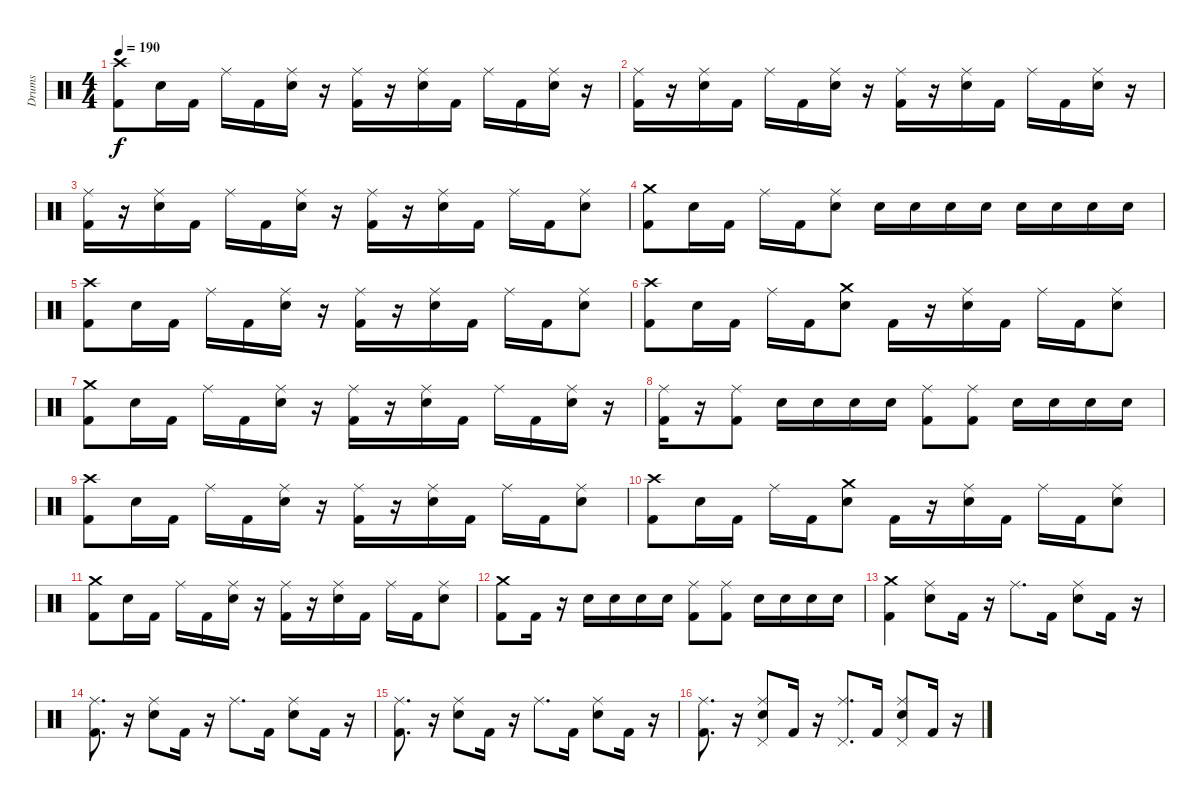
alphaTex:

\track ("Drums" "Drums") {instrument percussion}
\staff {score}
\articulation defaults
\ts (4 4)
\tempo 190
\clef neutral
\ks c
("Kick (hit) 2" "Crash high (hit)").8{dy f} "Electric Snare (hit)".16 "Kick (hit) 2".16 "Ride (middle)".16 "Kick (hit) 2".16 ("Electric Snare (hit)" "Ride (middle)").16 r.16 ("Kick (hit) 2" "Ride (middle)").16 r.16 ("Electric Snare (hit)" "Ride (middle)").16 "Kick (hit) 2".16 "Ride (middle)".16 "Kick (hit) 2".16 ("Electric Snare (hit)" "Ride (middle)").16 r.16 |
("Kick (hit) 2" "Ride (middle)").16 r.16 ("Electric Snare (hit)" "Ride (middle)").16 "Kick (hit) 2".16 "Ride (middle)".16 "Kick (hit) 2".16 ("Electric Snare (hit)" "Ride (middle)").16 r.16 ("Kick (hit) 2" "Ride (middle)").16 r.16 ("Electric Snare (hit)" "Ride (middle)").16 "Kick (hit) 2".16 "Ride (middle)".16 "Kick (hit) 2".16 ("Electric Snare (hit)" "Ride (middle)").16 r.16 |
("Kick (hit) 2" "Ride (middle)").16 r.16 ("Electric Snare (hit)" "Ride (middle)").16 "Kick (hit) 2".16 "Ride (middle)".16 "Kick (hit) 2".16 ("Electric Snare (hit)" "Ride (middle)").16 r.16 ("Kick (hit) 2" "Ride (middle)").16 r.16 ("Electric Snare (hit)" "Ride (middle)").16 "Kick (hit) 2".16 "Ride (middle)".16 "Kick (hit) 2".16 ("Electric Snare (hit)" "Ride (middle)").8 |
("Kick (hit) 2" "Crash medium (hit)").8 "Electric Snare (hit)".16 "Kick (hit) 2".16 "Ride (middle)".16 "Kick (hit) 2".16 ("Electric Snare (hit)" "Ride (middle)").8 "Electric Snare (hit)".16 "Electric Snare (hit)".16 "Electric Snare (hit)".16 "Electric Snare (hit)".16 "Electric Snare (hit)".16 "Electric Snare (hit)".16 "Electric Snare (hit)".16 "Electric Snare (hit)".16 |
("Kick (hit) 2" "Crash high (hit)").8 "Electric Snare (hit)".16 "Kick (hit) 2".16 "Ride (middle)".16 "Kick (hit) 2".16 ("Electric Snare (hit)" "Ride (middle)").16 r.16 ("Kick (hit) 2" "Ride (middle)").16 r.16 ("Electric Snare (hit)" "Ride (middle)").16 "Kick (hit) 2".16 "Ride (middle)".16 "Kick (hit) 2".16 ("Electric Snare (hit)" "Ride (middle)").8 |
("Kick (hit) 2" "Crash high (hit)").8 "Electric Snare (hit)".16 "Kick (hit) 2".16 "Ride (middle)".16 "Kick (hit) 2".16 ("Electric Snare (hit)" "Crash medium (hit)").8 "Kick (hit) 2".16 r.16 ("Electric Snare (hit)" "Ride (middle)").16 "Kick (hit) 2".16 "Ride (middle)".16 "Kick (hit) 2".16 ("Electric Snare (hit)" "Ride (middle)").8 |
("Kick (hit) 2" "Crash medium (hit)").8 "Electric Snare (hit)".16 "Kick (hit) 2".16 "Ride (middle)".16 "Kick (hit) 2".16 ("Electric Snare (hit)" "Ride (middle)").16 r.16 ("Kick (hit) 2" "Ride (middle)").16 r.16 ("Electric Snare (hit)" "Ride (middle)").16 "Kick (hit) 2".16 "Ride (middle)".16 "Kick (hit) 2".16 ("Electric Snare (hit)" "Ride (middle)").16 r.16 |
("Kick (hit) 2" "Ride (middle)").16 r.16 ("Kick (hit) 2" "Ride (middle)").8 "Electric Snare (hit)".16 "Electric Snare (hit)".16 "Electric Snare (hit)".16 "Electric Snare (hit)".16 ("Kick (hit) 2" "Ride (middle)").8 ("Kick (hit) 2" "Ride (middle)").8 "Electric Snare (hit)".16 "Electric Snare (hit)".16 "Electric Snare (hit)".16 "Electric Snare (hit)".16 |
("Kick (hit) 2" "Crash high (hit)").8 "Electric Snare (hit)".16 "Kick (hit) 2".16 "Ride (middle)".16 "Kick (hit) 2".16 ("Electric Snare (hit)" "Ride (middle)").16 r.16 ("Kick (hit) 2" "Ride (middle)").16 r.16 ("Electric Snare (hit)" "Ride (middle)").16 "Kick (hit) 2".16 "Ride (middle)".16 "Kick (hit) 2".16 ("Electric Snare (hit)" "Ride (middle)").8 |
("Kick (hit) 2" "Crash high (hit)").8 "Electric Snare (hit)".16 "Kick (hit) 2".16 "Ride (middle)".16 "Kick (hit) 2".16 ("Electric Snare (hit)" "Crash medium (hit)").8 "Kick (hit) 2".16 r.16 ("Electric Snare (hit)" "Ride (middle)").16 "Kick (hit) 2".16 "Ride (middle)".16 "Kick (hit) 2".16 ("Electric Snare (hit)" "Ride (middle)").8 |
("Kick (hit) 2" "Crash medium (hit)").8 "Electric Snare (hit)".16 "Kick (hit) 2".16 "Ride (middle)".16 "Kick (hit) 2".16 ("Electric Snare (hit)" "Ride (middle)").16 r.16 ("Kick (hit) 2" "Ride (middle)").16 r.16 ("Electric Snare (hit)" "Ride (middle)").16 "Kick (hit) 2".16 "Ride (middle)".16 "Kick (hit) 2".16 ("Electric Snare (hit)" "Ride (middle)").8 |
("Kick (hit) 2" "Crash medium (hit)").8 "Kick (hit) 2".16 r.16 "Electric Snare (hit)".16 "Electric Snare (hit)".16 "Electric Snare (hit)".16 "Electric Snare (hit)".16 ("Kick (hit) 2" "Ride (middle)").8 ("Kick (hit) 2" "Ride (middle)").8 "Electric Snare (hit)".16 "Electric Snare (hit)".16 "Electric Snare (hit)".16 "Electric Snare (hit)".16 |
("Kick (hit) 2" "Crash medium (hit)").4 ("Electric Snare (hit)" "Ride (middle)").8 "Kick (hit) 2".16 r.16 "Ride (middle)".8{d} "Kick (hit) 2".16 ("Electric Snare (hit)" "Ride (middle)").8 "Kick (hit) 2".16 r.16 |
("Kick (hit) 2" "Ride (middle)").8{d} r.16 ("Electric Snare (hit)" "Ride (middle)").8 "Kick (hit) 2".16 r.16 "Ride (middle)".8{d} "Kick (hit) 2".16 ("Electric Snare (hit)" "Ride (middle)").8 "Kick (hit) 2".16 r.16 |
("Kick (hit) 2" "Ride (middle)").8{d} r.16 ("Electric Snare (hit)" "Ride (middle)").8 "Kick (hit) 2".16 r.16 "Ride (middle)".8{d} "Kick (hit) 2".16 ("Electric Snare (hit)" "Ride (middle)").8 "Kick (hit) 2".16 r.16 |
("Kick (hit) 2" "Ride (middle)").8{d} r.16 ("Electric Snare (hit)" "Ride (middle)" "Pedal Hi-Hat (hit)").8 "Kick (hit) 2".16 r.16 ("Ride (middle)" "Pedal Hi-Hat (hit)").8{d} "Kick (hit) 2".16 ("Electric Snare (hit)" "Ride (middle)" "Pedal Hi-Hat (hit)").8 "Kick (hit) 2".16 r.16
